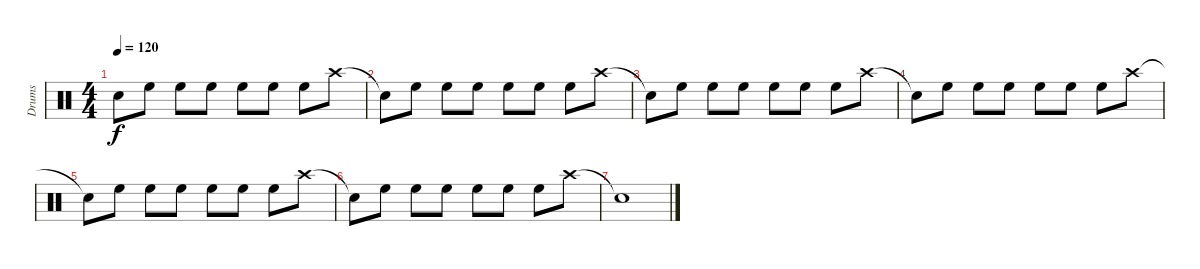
\track ("Drums" "Drums") {instrument percussion}
\staff {score}
\articulation defaults
\ts (4 4)
\tempo 120
\clef neutral
\ks c "Snare (hit)"{t}.8{dy f} "High Floor Tom (hit)".8 "High Floor Tom (hit)".8 "High Floor Tom (hit)".8 "High Floor Tom (hit)".8 "High Floor Tom (hit)".8 "High Floor Tom (hit)".8 "Crash high (hit)".8
|
"Snare (hit)"{t}.8 "High Floor Tom (hit)".8 "High Floor Tom (hit)".8 "High Floor Tom (hit)".8 "High Floor Tom (hit)".8 "High Floor Tom (hit)".8 "High Floor Tom (hit)".8 "Crash high (hit)".8 |
"Snare (hit)"{t}.8 "High Floor Tom (hit)".8 "High Floor Tom (hit)".8 "High Floor Tom (hit)".8 "High Floor Tom (hit)".8 "High Floor Tom (hit)".8 "High Floor Tom (hit)".8 "Crash high (hit)".8 |
"Snare (hit)"{t}.8 "High Floor Tom (hit)".8 "High Floor Tom (hit)".8 "High Floor Tom (hit)".8 "High Floor Tom (hit)".8 "High Floor Tom (hit)".8 "High Floor Tom (hit)".8 "Crash high (hit)".8 |
"Snare (hit)"{t}.8 "High Floor Tom (hit)".8 "High Floor Tom (hit)".8 "High Floor Tom (hit)".8 "High Floor Tom (hit)".8 "High Floor Tom (hit)".8 "High Floor Tom (hit)".8 "Crash high (hit)".8 |
"Snare (hit)"{t}.8 "High Floor Tom (hit)".8 "High Floor Tom (hit)".8 "High Floor Tom (hit)".8 "High Floor Tom (hit)".8 "High Floor Tom (hit)".8 "High Floor Tom (hit)".8 "Crash high (hit)".8 |
"Snare (hit)"{t}.1
